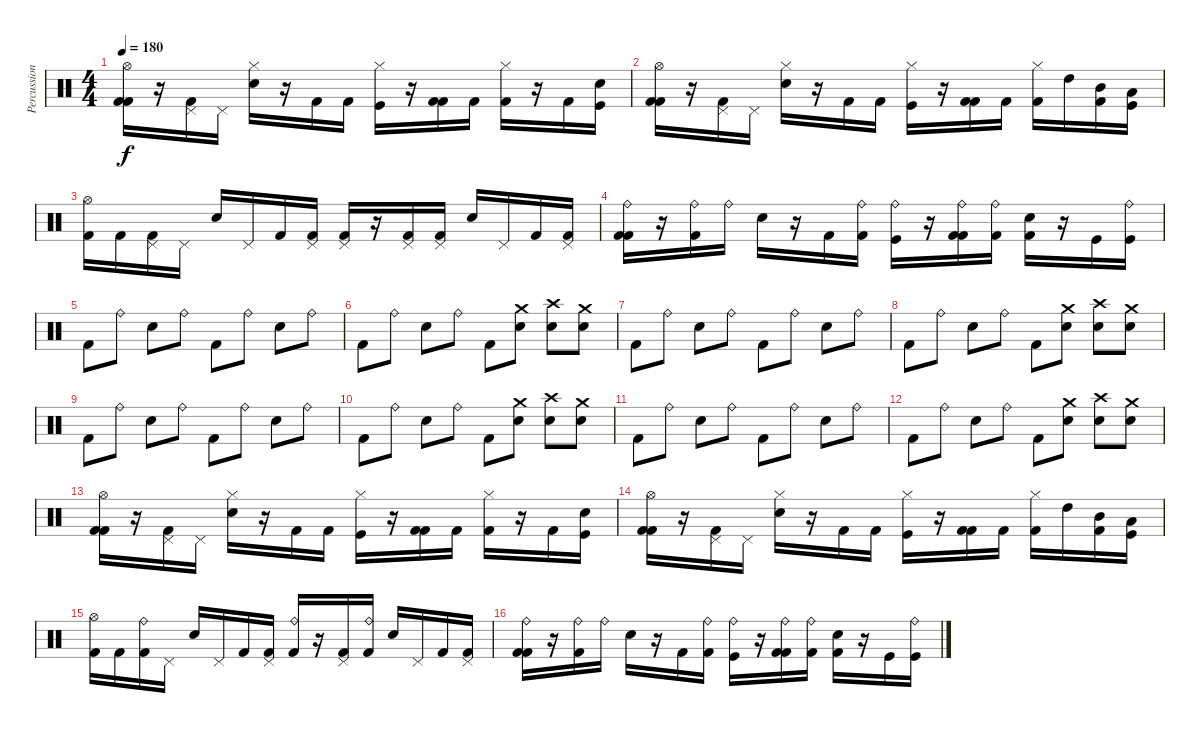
\track ("Percussion" "Percussion") {instrument percussion}
\staff {score}
\articulation defaults
\ts (4 4)
\tempo 180
\clef neutral
\ks c
("Hi-Hat (open)" "Kick (hit) 2" "Kick (hit) 2").16{dy f} r.16 ("Pedal Hi-Hat (hit)" "Kick (hit) 2").16 "Pedal Hi-Hat (hit)".16 ("Hi-Hat (closed)" "Snare (hit) 2").16 r.16 "Kick (hit) 2".16 "Kick (hit) 2".16 ("Hi-Hat (closed)" "Kick (hit)").16 r.16 ("Kick (hit) 2" "Kick (hit) 2").16 "Kick (hit) 2".16 ("Hi-Hat (closed)" "Kick (hit) 2").16 r.16 "Kick (hit) 2".16 ("Metronome (bell)" "Kick (hit)").16 |
("Hi-Hat (open)" "Kick (hit) 2" "Kick (hit) 2").16 r.16 ("Pedal Hi-Hat (hit)" "Kick (hit) 2").16 "Pedal Hi-Hat (hit)".16 ("Hi-Hat (closed)" "Snare (hit) 2").16 r.16 "Kick (hit) 2".16 "Kick (hit) 2".16 ("Hi-Hat (closed)" "Kick (hit)").16 r.16 ("Kick (hit) 2" "Kick (hit) 2").16 "Kick (hit) 2".16 ("Hi-Hat (closed)" "Kick (hit) 2").16 "High Tom (hit)".16 ("Mid Tom (hit)" "Kick (hit) 2").16 ("Low Tom (hit)" "Kick (hit)").16 |
("Hi-Hat (open)" "Kick (hit) 2").16 "Kick (hit) 2".16 ("Pedal Hi-Hat (hit)" "Kick (hit) 2").16 "Pedal Hi-Hat (hit)".16 "Snare (hit) 2".16 "Pedal Hi-Hat (hit)".16 "Kick (hit) 2".16 ("Pedal Hi-Hat (hit)" "Kick (hit) 2").16 ("Pedal Hi-Hat (hit)" "Kick (hit) 2").16 r.16 ("Pedal Hi-Hat (hit)" "Kick (hit) 2").16 ("Pedal Hi-Hat (hit)" "Kick (hit) 2").16 "Snare (hit) 2".16 "Pedal Hi-Hat (hit)".16 "Kick (hit) 2".16 ("Pedal Hi-Hat (hit)" "Kick (hit) 2").16 |
("Ride (bell)" "Kick (hit) 2" "Kick (hit) 2").16 r.16 ("Ride (bell)" "Kick (hit) 2").16 "Ride (bell)".16 "Snare (hit) 2".16 r.16 "Kick (hit) 2".16 ("Ride (bell)" "Kick (hit) 2").16 ("Ride (bell)" "Kick (hit)").16 r.16 ("Ride (bell)" "Kick (hit) 2" "Kick (hit) 2").16 ("Ride (bell)" "Kick (hit) 2").16 ("Snare (hit) 2" "Kick (hit) 2").16 r.16 "Kick (hit)".16 ("Ride (bell)" "Kick (hit)").16 |
"Kick (hit) 2".8 "Ride (bell)".8 "Snare (hit) 2".8 "Ride (bell)".8 "Kick (hit) 2".8 "Ride (bell)".8 "Snare (hit) 2".8 "Ride (bell)".8 |
"Kick (hit) 2".8 "Ride (bell)".8 "Snare (hit) 2".8 "Ride (bell)".8 "Kick (hit) 2".8 ("Crash medium (hit)" "Snare (hit) 2").8 ("Crash high (hit)" "Snare (hit) 2").8 ("Crash medium (hit)" "Snare (hit) 2").8 |
"Kick (hit) 2".8 "Ride (bell)".8 "Snare (hit) 2".8 "Ride (bell)".8 "Kick (hit) 2".8 "Ride (bell)".8 "Snare (hit) 2".8 "Ride (bell)".8 |
"Kick (hit) 2".8 "Ride (bell)".8 "Snare (hit) 2".8 "Ride (bell)".8 "Kick (hit) 2".8 ("Crash medium (hit)" "Snare (hit) 2").8 ("Crash high (hit)" "Snare (hit) 2").8 ("Crash medium (hit)" "Snare (hit) 2").8 |
"Kick (hit) 2".8 "Ride (bell)".8 "Snare (hit) 2".8 "Ride (bell)".8 "Kick (hit) 2".8 "Ride (bell)".8 "Snare (hit) 2".8 "Ride (bell)".8 |
"Kick (hit) 2".8 "Ride (bell)".8 "Snare (hit) 2".8 "Ride (bell)".8 "Kick (hit) 2".8 ("Crash medium (hit)" "Snare (hit) 2").8 ("Crash high (hit)" "Snare (hit) 2").8 ("Crash medium (hit)" "Snare (hit) 2").8 |
"Kick (hit) 2".8 "Ride (bell)".8 "Snare (hit) 2".8 "Ride (bell)".8 "Kick (hit) 2".8 "Ride (bell)".8 "Snare (hit) 2".8 "Ride (bell)".8 |
"Kick (hit) 2".8 "Ride (bell)".8 "Snare (hit) 2".8 "Ride (bell)".8 "Kick (hit) 2".8 ("Crash medium (hit)" "Snare (hit) 2").8 ("Crash high (hit)" "Snare (hit) 2").8 ("Crash medium (hit)" "Snare (hit) 2").8 |
("Hi-Hat (open)" "Kick (hit) 2" "Kick (hit) 2").16 r.16 ("Pedal Hi-Hat (hit)" "Kick (hit) 2").16 "Pedal Hi-Hat (hit)".16 ("Hi-Hat (closed)" "Snare (hit) 2").16 r.16 "Kick (hit) 2".16 "Kick (hit) 2".16 ("Hi-Hat (closed)" "Kick (hit)").16 r.16 ("Kick (hit) 2" "Kick (hit) 2").16 "Kick (hit) 2".16 ("Hi-Hat (closed)" "Kick (hit) 2").16 r.16 "Kick (hit) 2".16 ("Metronome (bell)" "Kick (hit)").16 |
("Hi-Hat (open)" "Kick (hit) 2" "Kick (hit) 2").16 r.16 ("Pedal Hi-Hat (hit)" "Kick (hit) 2").16 "Pedal Hi-Hat (hit)".16 ("Hi-Hat (closed)" "Snare (hit) 2").16 r.16 "Kick (hit) 2".16 "Kick (hit) 2".16 ("Hi-Hat (closed)" "Kick (hit)").16 r.16 ("Kick (hit) 2" "Kick (hit) 2").16 "Kick (hit) 2".16 ("Hi-Hat (closed)" "Kick (hit) 2").16 "High Tom (hit)".16 ("Mid Tom (hit)" "Kick (hit) 2").16 ("Low Tom (hit)" "Kick (hit)").16 |
("Hi-Hat (open)" "Kick (hit) 2").16 "Kick (hit) 2".16 ("Ride (bell)" "Kick (hit) 2").16 "Pedal Hi-Hat (hit)".16 "Snare (hit) 2".16 "Pedal Hi-Hat (hit)".16 "Kick (hit) 2".16 ("Pedal Hi-Hat (hit)" "Kick (hit) 2").16 ("Ride (bell)" "Kick (hit) 2").16 r.16 ("Pedal Hi-Hat (hit)" "Kick (hit) 2").16 ("Ride (bell)" "Kick (hit) 2").16 "Snare (hit) 2".16 "Pedal Hi-Hat (hit)".16 "Kick (hit) 2".16 ("Pedal Hi-Hat (hit)" "Kick (hit) 2").16 |
("Ride (bell)" "Kick (hit) 2" "Kick (hit) 2").16 r.16 ("Ride (bell)" "Kick (hit) 2").16 "Ride (bell)".16 "Snare (hit) 2".16 r.16 "Kick (hit) 2".16 ("Ride (bell)" "Kick (hit) 2").16 ("Ride (bell)" "Kick (hit)").16 r.16 ("Ride (bell)" "Kick (hit) 2" "Kick (hit) 2").16 ("Ride (bell)" "Kick (hit) 2").16 ("Snare (hit) 2" "Kick (hit) 2").16 r.16 "Kick (hit)".16 ("Ride (bell)" "Kick (hit)").16
